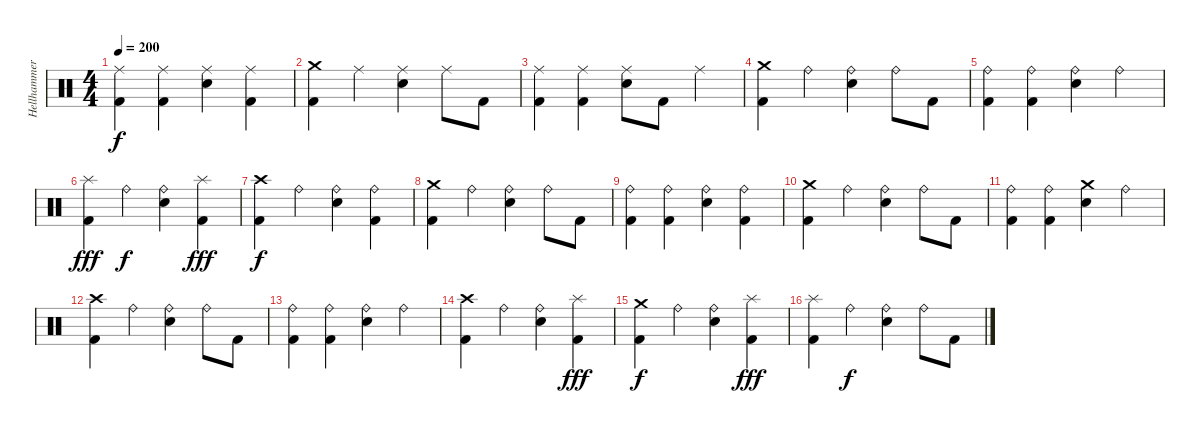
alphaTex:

\track ("Hellhammer" "Hellhammer") {instrument percussion}
\staff {score}
\articulation defaults
\ts (4 4)
\tempo 200
\clef neutral
\ks c
("Kick (hit) 2" "Ride (middle)").4{dy f} ("Kick (hit) 2" "Ride (middle)").4 ("Electric Snare (hit)" "Ride (middle)").4 ("Kick (hit) 2" "Ride (middle)").4 |
("Kick (hit) 2" "Crash medium (hit)").4 "Ride (middle)".4 ("Electric Snare (hit)" "Ride (middle)").4 "Ride (middle)".8 "Kick (hit) 2".8 |
("Kick (hit) 2" "Ride (middle)").4 ("Kick (hit) 2" "Ride (middle)").4 ("Electric Snare (hit)" "Ride (middle)").8 "Kick (hit) 2".8 "Ride (middle)".4 |
("Kick (hit) 2" "Crash medium (hit)").4 "Ride (bell)".4 ("Electric Snare (hit)" "Ride (bell)").4 "Ride (bell)".8 "Kick (hit) 2".8 |
("Kick (hit) 2" "Ride (bell)").4 ("Kick (hit) 2" "Ride (bell)").4 ("Electric Snare (hit)" "Ride (bell)").4 "Ride (bell)".4 |
("Kick (hit) 2" "Splash (hit)").4{dy fff} "Ride (bell)".4{dy f} ("Electric Snare (hit)" "Ride (bell)").4 ("Kick (hit) 2" "Splash (hit)").4{dy fff} |
("Kick (hit) 2" "Crash high (hit)").4{dy f} "Ride (bell)".4 ("Electric Snare (hit)" "Ride (bell)").4 ("Kick (hit) 2" "Ride (bell)").4 |
("Kick (hit) 2" "Crash medium (hit)").4 "Ride (bell)".4 ("Electric Snare (hit)" "Ride (bell)").4 "Ride (bell)".8 "Kick (hit) 2".8 |
("Kick (hit) 2" "Ride (bell)").4 ("Kick (hit) 2" "Ride (bell)").4 ("Electric Snare (hit)" "Ride (bell)").4 ("Kick (hit) 2" "Ride (bell)").4 |
("Kick (hit) 2" "Crash medium (hit)").4 "Ride (bell)".4 ("Electric Snare (hit)" "Ride (bell)").4 "Ride (bell)".8 "Kick (hit) 2".8 |
("Kick (hit) 2" "Ride (bell)").4 ("Kick (hit) 2" "Ride (bell)").4 ("Electric Snare (hit)" "Crash medium (hit)").4 "Ride (bell)".4 |
("Kick (hit) 2" "Crash high (hit)").4 "Ride (bell)".4 ("Electric Snare (hit)" "Ride (bell)").4 "Ride (bell)".8 "Kick (hit) 2".8 |
("Kick (hit) 2" "Ride (bell)").4 ("Kick (hit) 2" "Ride (bell)").4 ("Electric Snare (hit)" "Ride (bell)").4 "Ride (bell)".4 |
("Kick (hit) 2" "Crash high (hit)").4 "Ride (bell)".4 ("Electric Snare (hit)" "Ride (bell)").4 ("Kick (hit) 2" "Splash (hit)").4{dy fff} |
("Kick (hit) 2" "Crash medium (hit)").4{dy f} "Ride (bell)".4 ("Electric Snare (hit)" "Ride (bell)").4 ("Kick (hit) 2" "Splash (hit)").4{dy fff} |
("Kick (hit) 2" "Splash (hit)").4 "Ride (bell)".4{dy f} ("Electric Snare (hit)" "Ride (bell)").4 "Ride (bell)".8 "Kick (hit) 2".8
